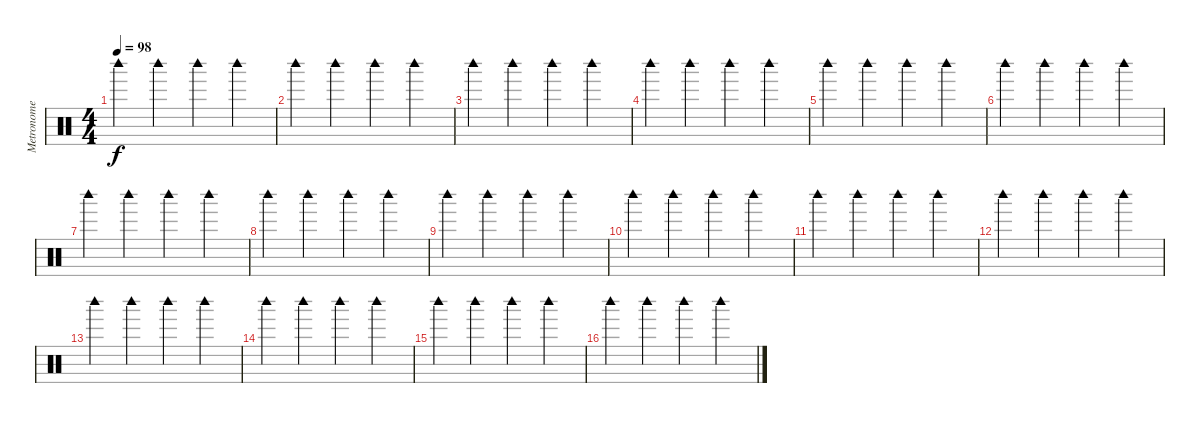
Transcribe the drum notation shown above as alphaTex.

\track ("Metronome" "Metronome") {instrument percussion}
\staff {score}
\articulation defaults
\ts (4 4)
\tempo 98
\clef neutral
\ks c "Woodblock high (hit)".4{dy f} "Woodblock high (hit)".4 "Woodblock high (hit)".4 "Woodblock high (hit)".4
|
"Woodblock high (hit)".4 "Woodblock high (hit)".4 "Woodblock high (hit)".4 "Woodblock high (hit)".4 |
"Woodblock high (hit)".4 "Woodblock high (hit)".4 "Woodblock high (hit)".4 "Woodblock high (hit)".4 |
"Woodblock high (hit)".4 "Woodblock high (hit)".4 "Woodblock high (hit)".4 "Woodblock high (hit)".4 |
"Woodblock high (hit)".4 "Woodblock high (hit)".4 "Woodblock high (hit)".4 "Woodblock high (hit)".4 |
"Woodblock high (hit)".4 "Woodblock high (hit)".4 "Woodblock high (hit)".4 "Woodblock high (hit)".4 |
"Woodblock high (hit)".4 "Woodblock high (hit)".4 "Woodblock high (hit)".4 "Woodblock high (hit)".4 |
"Woodblock high (hit)".4 "Woodblock high (hit)".4 "Woodblock high (hit)".4 "Woodblock high (hit)".4 |
"Woodblock high (hit)".4 "Woodblock high (hit)".4 "Woodblock high (hit)".4 "Woodblock high (hit)".4 |
"Woodblock high (hit)".4 "Woodblock high (hit)".4 "Woodblock high (hit)".4 "Woodblock high (hit)".4 |
"Woodblock high (hit)".4 "Woodblock high (hit)".4 "Woodblock high (hit)".4 "Woodblock high (hit)".4 |
"Woodblock high (hit)".4 "Woodblock high (hit)".4 "Woodblock high (hit)".4 "Woodblock high (hit)".4 |
"Woodblock high (hit)".4 "Woodblock high (hit)".4 "Woodblock high (hit)".4 "Woodblock high (hit)".4 |
"Woodblock high (hit)".4 "Woodblock high (hit)".4 "Woodblock high (hit)".4 "Woodblock high (hit)".4 |
"Woodblock high (hit)".4 "Woodblock high (hit)".4 "Woodblock high (hit)".4 "Woodblock high (hit)".4 |
"Woodblock high (hit)".4 "Woodblock high (hit)".4 "Woodblock high (hit)".4 "Woodblock high (hit)".4
